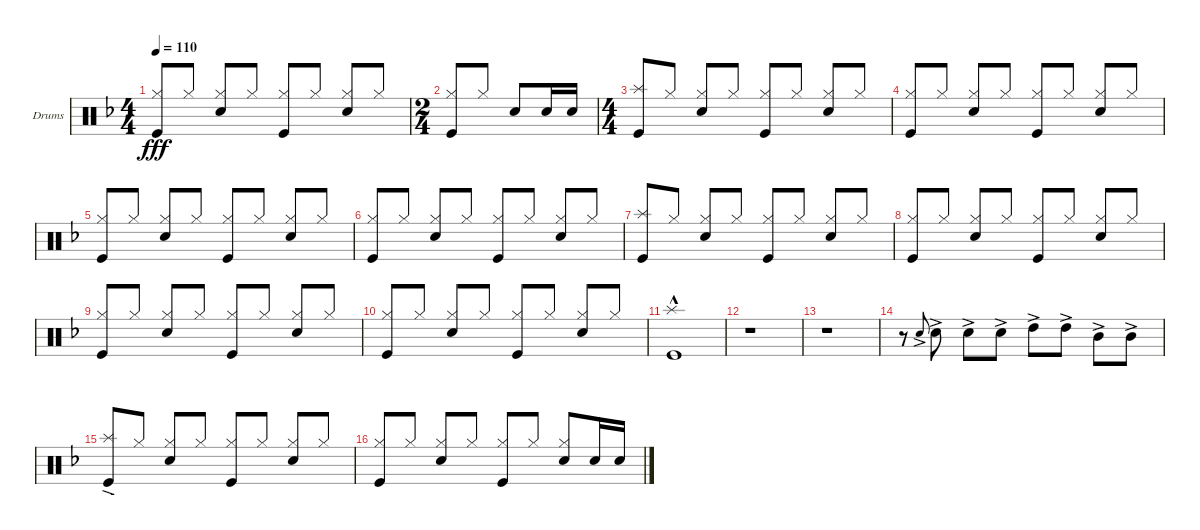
\defaultSystemsLayout 4
\bracketExtendMode groupsimilarinstruments
\firstSystemTrackNameOrientation horizontal
\otherSystemsTrackNameOrientation horizontal
\track ("Drumkit" "Drums") {instrument percussion}
\staff {score}
\articulation defaults
\ts (4 4)
\tempo 110
\clef neutral
\ks f
("Kick (hit)" "Hi-Hat (closed)").8{dy fff beam invert} "Hi-Hat (closed)".8 ("Hi-Hat (closed)" "Snare (hit) 2").8{beam invert} "Hi-Hat (closed)".8 ("Kick (hit)" "Hi-Hat (closed)").8{beam invert} "Hi-Hat (closed)".8 ("Hi-Hat (closed)" "Snare (hit) 2").8{beam invert} "Hi-Hat (closed)".8 |
\ts (2 4)
("Hi-Hat (closed)" "Kick (hit)").8{beam invert} "Hi-Hat (closed)".8 "Snare (hit) 2".8{beam invert} "Snare (hit) 2".16 "Snare (hit) 2".16 |
\ts (4 4)
("Kick (hit)" "Splash (hit)").8{beam invert} "Hi-Hat (closed)".8 ("Hi-Hat (closed)" "Snare (hit) 2").8{beam invert} "Hi-Hat (closed)".8 ("Hi-Hat (closed)" "Kick (hit)").8{beam invert} "Hi-Hat (closed)".8 ("Hi-Hat (closed)" "Snare (hit) 2").8{beam invert} "Hi-Hat (closed)".8 |
("Hi-Hat (closed)" "Kick (hit)").8{beam invert} "Hi-Hat (closed)".8 ("Hi-Hat (closed)" "Snare (hit) 2").8{beam invert} "Hi-Hat (closed)".8 ("Hi-Hat (closed)" "Kick (hit)").8{beam invert} "Hi-Hat (closed)".8 ("Hi-Hat (closed)" "Snare (hit) 2").8{beam invert} "Hi-Hat (closed)".8 |
("Hi-Hat (closed)" "Kick (hit)").8{beam invert} "Hi-Hat (closed)".8 ("Hi-Hat (closed)" "Snare (hit) 2").8{beam invert} "Hi-Hat (closed)".8 ("Hi-Hat (closed)" "Kick (hit)").8{beam invert} "Hi-Hat (closed)".8 ("Hi-Hat (closed)" "Snare (hit) 2").8{beam invert} "Hi-Hat (closed)".8 |
("Hi-Hat (closed)" "Kick (hit)").8{beam invert} "Hi-Hat (closed)".8 ("Hi-Hat (closed)" "Snare (hit) 2").8{beam invert} "Hi-Hat (closed)".8 ("Hi-Hat (closed)" "Kick (hit)").8{beam invert} "Hi-Hat (closed)".8 ("Hi-Hat (closed)" "Snare (hit) 2").8{beam invert} "Hi-Hat (closed)".8 |
("Kick (hit)" "Splash (hit)").8 "Hi-Hat (closed)".8 ("Hi-Hat (closed)" "Snare (hit) 2").8{beam invert} "Hi-Hat (closed)".8 ("Hi-Hat (closed)" "Kick (hit)").8{beam invert} "Hi-Hat (closed)".8 ("Hi-Hat (closed)" "Snare (hit) 2").8{beam invert} "Hi-Hat (closed)".8 |
("Hi-Hat (closed)" "Kick (hit)").8{beam invert} "Hi-Hat (closed)".8 ("Hi-Hat (closed)" "Snare (hit) 2").8{beam invert} "Hi-Hat (closed)".8 ("Hi-Hat (closed)" "Kick (hit)").8{beam invert} "Hi-Hat (closed)".8 ("Hi-Hat (closed)" "Snare (hit) 2").8{beam invert} "Hi-Hat (closed)".8 |
("Hi-Hat (closed)" "Kick (hit)").8{beam invert} "Hi-Hat (closed)".8 ("Hi-Hat (closed)" "Snare (hit) 2").8{beam invert} "Hi-Hat (closed)".8 ("Hi-Hat (closed)" "Kick (hit)").8{beam invert} "Hi-Hat (closed)".8 ("Hi-Hat (closed)" "Snare (hit) 2").8{beam invert} "Hi-Hat (closed)".8 |
("Hi-Hat (closed)" "Kick (hit)").8{beam invert} "Hi-Hat (closed)".8 ("Hi-Hat (closed)" "Snare (hit) 2").8{beam invert} "Hi-Hat (closed)".8 ("Hi-Hat (closed)" "Kick (hit)").8{beam invert} "Hi-Hat (closed)".8 ("Hi-Hat (closed)" "Snare (hit) 2").8{beam invert} "Hi-Hat (closed)".8 |
("Kick (hit)" "Splash (hit)"{hac}).1 |
r.1 |
r.1 |
r.8 "Snare (hit) 2"{ac}.8{gr onbeat} "Snare (hit) 2"{ac}.8 "Snare (hit) 2"{ac}.8 "Snare (hit) 2"{ac}.8 "High Tom (hit)"{ac}.8 "High Tom (hit)"{ac}.8 "Mid Tom (hit)"{ac}.8 "Mid Tom (hit)"{ac}.8 |
("Kick (hit)" "Splash (hit)"{ac}).8 "Hi-Hat (closed)".8 ("Hi-Hat (closed)" "Snare (hit) 2").8{beam invert} "Hi-Hat (closed)".8 ("Hi-Hat (closed)" "Kick (hit)").8{beam invert} "Hi-Hat (closed)".8 ("Hi-Hat (closed)" "Snare (hit) 2").8{beam invert} "Hi-Hat (closed)".8 |
("Hi-Hat (closed)" "Kick (hit)").8{beam invert} "Hi-Hat (closed)".8 ("Hi-Hat (closed)" "Snare (hit) 2").8{beam invert} "Hi-Hat (closed)".8 ("Hi-Hat (closed)" "Kick (hit)").8{beam invert} "Hi-Hat (closed)".8 ("Hi-Hat (closed)" "Snare (hit) 2").8{beam invert} "Snare (hit) 2".16 "Snare (hit) 2".16
